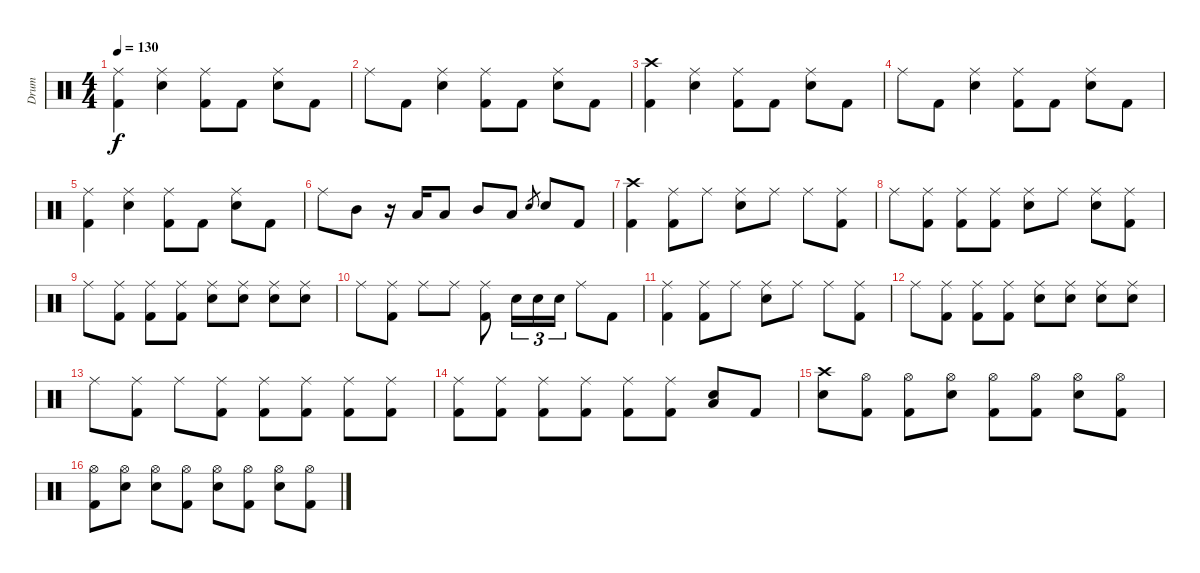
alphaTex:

\track ("Drum" "Drum") {instrument percussion}
\staff {score}
\articulation defaults
\ts (4 4)
\tempo 130
\clef neutral
\ks c
("Ride (middle)" "Kick (hit) 2").4{dy f} ("Ride (middle)" "Electric Snare (hit)").4 ("Ride (middle)" "Kick (hit) 2").8 "Kick (hit) 2".8 ("Ride (middle)" "Electric Snare (hit)").8 "Kick (hit) 2".8 |
"Ride (middle)".8 "Kick (hit) 2".8 ("Ride (middle)" "Electric Snare (hit)").4 ("Ride (middle)" "Kick (hit) 2").8 "Kick (hit) 2".8 ("Ride (middle)" "Electric Snare (hit)").8 "Kick (hit) 2".8 |
("Crash high (hit)" "Kick (hit) 2").4 ("Ride (middle)" "Electric Snare (hit)").4 ("Ride (middle)" "Kick (hit) 2").8 "Kick (hit) 2".8 ("Ride (middle)" "Electric Snare (hit)").8 "Kick (hit) 2".8 |
"Ride (middle)".8 "Kick (hit) 2".8 ("Ride (middle)" "Electric Snare (hit)").4 ("Ride (middle)" "Kick (hit) 2").8 "Kick (hit) 2".8 ("Ride (middle)" "Electric Snare (hit)").8 "Kick (hit) 2".8 |
("Ride (middle)" "Kick (hit) 2").4 ("Ride (middle)" "Electric Snare (hit)").4 ("Ride (middle)" "Kick (hit) 2").8 "Kick (hit) 2".8 ("Ride (middle)" "Electric Snare (hit)").8 "Kick (hit) 2".8 |
"Ride (middle)".8 "Mid Tom (hit)".8 r.16 "Low Tom (hit)".16 "Low Tom (hit)".8 "Mid Tom (hit)".8 "Low Floor Tom (hit)".8 "Electric Snare (hit)".8{gr} "Electric Snare (hit)".8 "Kick (hit) 2".8 |
("Crash high (hit)" "Kick (hit) 2").4 ("Ride (middle)" "Kick (hit) 2").8 "Ride (middle)".8 ("Ride (middle)" "Electric Snare (hit)").8 "Ride (middle)".8 "Ride (middle)".8 ("Ride (middle)" "Kick (hit) 2").8 |
"Ride (middle)".8 ("Ride (middle)" "Kick (hit) 2").8 ("Ride (middle)" "Kick (hit) 2").8 ("Ride (middle)" "Kick (hit) 2").8 ("Ride (middle)" "Electric Snare (hit)").8 "Ride (middle)".8 ("Ride (middle)" "Electric Snare (hit)").8 ("Ride (middle)" "Kick (hit) 2").8 |
"Ride (middle)".8 ("Ride (middle)" "Kick (hit) 2").8 ("Ride (middle)" "Kick (hit) 2").8 ("Ride (middle)" "Kick (hit) 2").8 ("Ride (middle)" "Electric Snare (hit)").8 ("Ride (middle)" "Electric Snare (hit)").8 ("Ride (middle)" "Electric Snare (hit)").8 ("Ride (middle)" "Electric Snare (hit)").8 |
"Ride (middle)".8 ("Ride (middle)" "Kick (hit) 2").8 "Ride (middle)".8 "Ride (middle)".8 ("Ride (middle)" "Kick (hit) 2").8 "Electric Snare (hit)".16{tu (3 2)} "Electric Snare (hit)".16{tu (3 2)} "Electric Snare (hit)".16{tu (3 2)} "Ride (middle)".8 "Kick (hit) 2".8 |
("Ride (middle)" "Kick (hit) 2").4 ("Ride (middle)" "Kick (hit) 2").8 "Ride (middle)".8 ("Ride (middle)" "Electric Snare (hit)").8 "Ride (middle)".8 "Ride (middle)".8 ("Ride (middle)" "Kick (hit) 2").8 |
"Ride (middle)".8 ("Ride (middle)" "Kick (hit) 2").8 ("Ride (middle)" "Kick (hit) 2").8 ("Ride (middle)" "Kick (hit) 2").8 ("Ride (middle)" "Electric Snare (hit)").8 ("Ride (middle)" "Electric Snare (hit)").8 ("Ride (middle)" "Electric Snare (hit)").8 ("Ride (middle)" "Electric Snare (hit)").8 |
"Ride (middle)".8 ("Ride (middle)" "Kick (hit) 2").8 "Ride (middle)".8 ("Ride (middle)" "Kick (hit) 2").8 ("Ride (middle)" "Kick (hit) 2").8 ("Ride (middle)" "Kick (hit) 2").8 ("Ride (middle)" "Kick (hit) 2").8 ("Ride (middle)" "Kick (hit) 2").8 |
("Ride (middle)" "Kick (hit) 2").8 ("Ride (middle)" "Kick (hit) 2").8 ("Ride (middle)" "Kick (hit) 2").8 ("Ride (middle)" "Kick (hit) 2").8 ("Ride (middle)" "Kick (hit) 2").8 ("Ride (middle)" "Kick (hit) 2").8 ("Electric Snare (hit)" "Low Floor Tom (hit)").8 "Kick (hit) 2".8 |
("Crash high (hit)" "Electric Snare (hit)").8 ("Hi-Hat (open)" "Kick (hit) 2").8 ("Hi-Hat (open)" "Kick (hit) 2").8 ("Hi-Hat (open)" "Electric Snare (hit)").8 ("Hi-Hat (open)" "Kick (hit) 2").8 ("Hi-Hat (open)" "Kick (hit) 2").8 ("Hi-Hat (open)" "Electric Snare (hit)").8 ("Hi-Hat (open)" "Kick (hit) 2").8 |
("Hi-Hat (open)" "Kick (hit) 2").8 ("Hi-Hat (open)" "Electric Snare (hit)").8 ("Hi-Hat (open)" "Electric Snare (hit)").8 ("Hi-Hat (open)" "Kick (hit) 2").8 ("Hi-Hat (open)" "Electric Snare (hit)").8 ("Hi-Hat (open)" "Kick (hit) 2").8 ("Hi-Hat (open)" "Electric Snare (hit)").8 ("Hi-Hat (open)" "Kick (hit) 2").8
